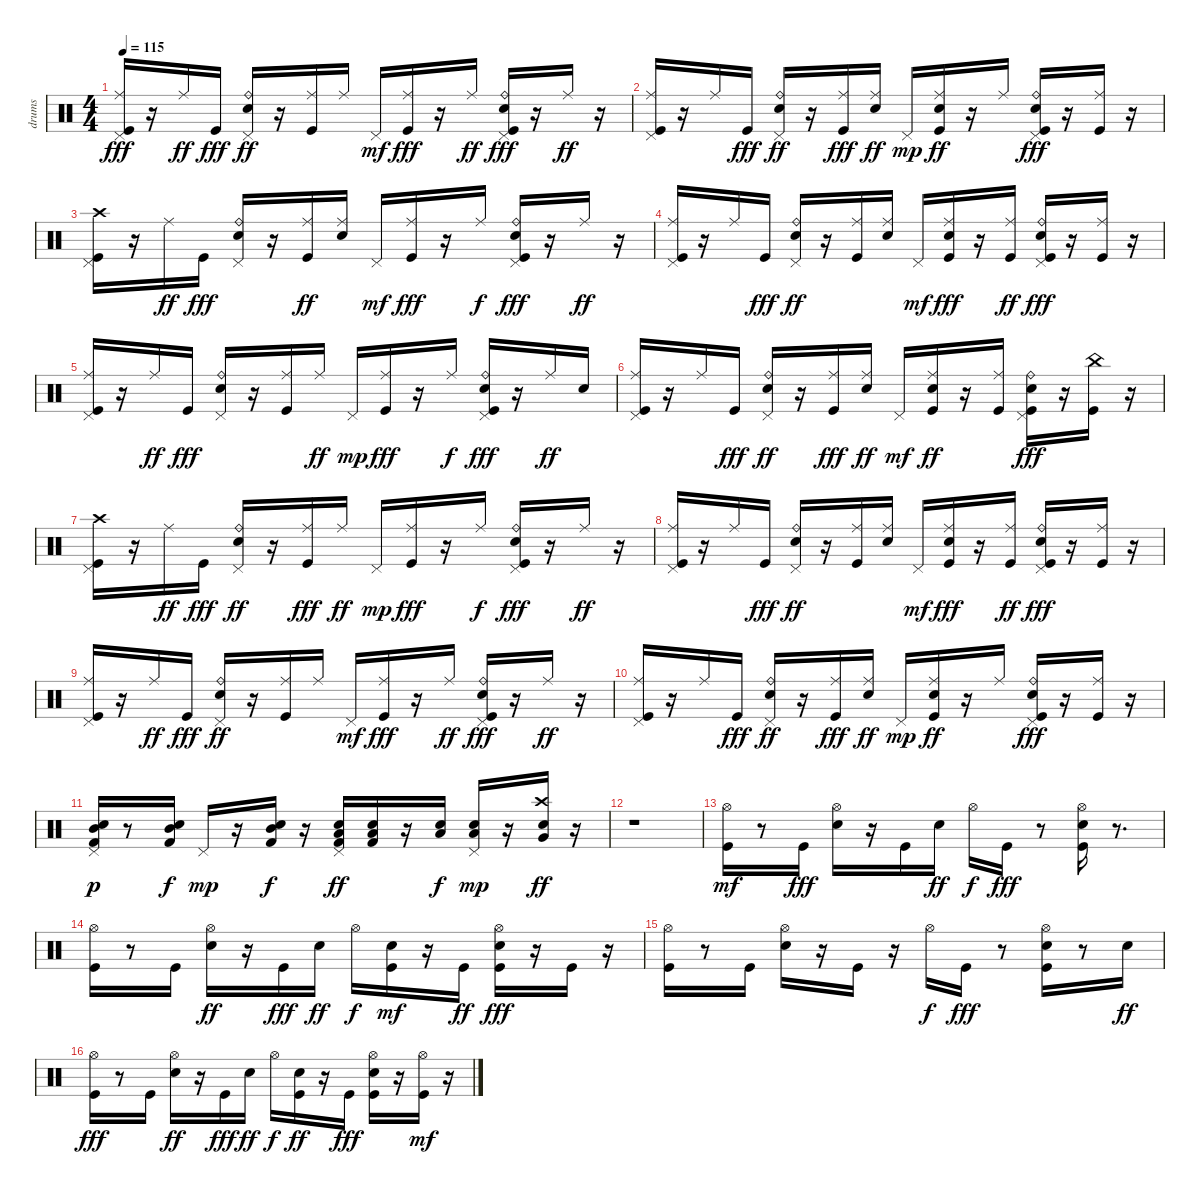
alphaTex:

\track ("drums" "drums") {instrument percussion}
\staff {score}
\articulation defaults
\ts (4 4)
\tempo 115
\clef neutral
\ks c
("Pedal Hi-Hat (hit)" "Ride (middle)" "Kick (hit)").16{dy fff} r.16 "Ride (middle)".16{dy ff} "Kick (hit)".16{dy fff} ("Pedal Hi-Hat (hit)" "Ride (bell)" "Snare (hit) 2").16{dy ff} r.16 ("Kick (hit)" "Ride (middle)").16 "Ride (middle)".16 "Pedal Hi-Hat (hit)".16{dy mf} ("Ride (middle)" "Kick (hit)").16{dy fff} r.16 "Ride (middle)".16{dy ff} ("Pedal Hi-Hat (hit)" "Kick (hit)" "Ride (bell)" "Snare (hit) 2").16{dy fff} r.16 "Ride (middle)".16{dy ff} r.16 |
("Pedal Hi-Hat (hit)" "Kick (hit)" "Ride (middle)").16 r.16 "Ride (middle)".16 "Kick (hit)".16{dy fff} ("Pedal Hi-Hat (hit)" "Snare (hit) 2" "Ride (bell)").16{dy ff} r.16 ("Kick (hit)" "Ride (middle)").16{dy fff} ("Ride (middle)" "Snare (hit) 2").16{dy ff} "Pedal Hi-Hat (hit)".16{dy mp} ("Kick (hit)" "Ride (middle)" "Snare (hit) 2").16{dy ff} r.16 "Ride (middle)".16 ("Pedal Hi-Hat (hit)" "Kick (hit)" "Snare (hit) 2" "Ride (bell)").16{dy fff} r.16 ("Ride (middle)" "Kick (hit)").16 r.16 |
("Crash high (hit)" "Pedal Hi-Hat (hit)" "Kick (hit)").16 r.16 "Ride (middle)".16{dy ff} "Kick (hit)".16{dy fff} ("Pedal Hi-Hat (hit)" "Snare (hit) 2" "Ride (bell)").16 r.16 ("Kick (hit)" "Ride (middle)").16{dy ff} ("Snare (hit) 2" "Ride (middle)").16 "Pedal Hi-Hat (hit)".16{dy mf} ("Ride (middle)" "Kick (hit)").16{dy fff} r.16 "Ride (middle)".16{dy f} ("Pedal Hi-Hat (hit)" "Snare (hit) 2" "Ride (bell)" "Kick (hit)").16{dy fff} r.16 "Ride (middle)".16{dy ff} r.16 |
("Pedal Hi-Hat (hit)" "Kick (hit)" "Ride (middle)").16 r.16 "Ride (middle)".16 "Kick (hit)".16{dy fff} ("Pedal Hi-Hat (hit)" "Snare (hit) 2" "Ride (bell)").16{dy ff} r.16 ("Kick (hit)" "Ride (middle)").16 ("Ride (middle)" "Snare (hit) 2").16 "Pedal Hi-Hat (hit)".16{dy mf} ("Ride (middle)" "Snare (hit) 2" "Kick (hit)").16{dy fff} r.16 ("Ride (middle)" "Kick (hit)").16{dy ff} ("Pedal Hi-Hat (hit)" "Ride (bell)" "Snare (hit) 2" "Kick (hit)").16{dy fff} r.16 ("Ride (middle)" "Kick (hit)").16 r.16 |
("Pedal Hi-Hat (hit)" "Ride (middle)" "Kick (hit)").16 r.16 "Ride (middle)".16{dy ff} "Kick (hit)".16{dy fff} ("Pedal Hi-Hat (hit)" "Snare (hit) 2" "Ride (bell)").16 r.16 ("Ride (middle)" "Kick (hit)").16 "Ride (middle)".16{dy ff} "Pedal Hi-Hat (hit)".16{dy mp} ("Ride (middle)" "Kick (hit)").16{dy fff} r.16 "Ride (middle)".16{dy f} ("Pedal Hi-Hat (hit)" "Ride (bell)" "Snare (hit) 2" "Kick (hit)").16{dy fff} r.16 "Ride (middle)".16{dy ff} "Snare (hit) 2".16 |
("Pedal Hi-Hat (hit)" "Kick (hit)" "Ride (middle)").16 r.16 "Ride (middle)".16 "Kick (hit)".16{dy fff} ("Pedal Hi-Hat (hit)" "Ride (bell)" "Snare (hit) 2").16{dy ff} r.16 ("Kick (hit)" "Ride (middle)").16{dy fff} ("Ride (middle)" "Snare (hit) 2").16{dy ff} "Pedal Hi-Hat (hit)".16{dy mf} ("Ride (middle)" "Kick (hit)" "Snare (hit) 2").16{dy ff} r.16 ("Kick (hit)" "Ride (middle)").16 ("Pedal Hi-Hat (hit)" "Ride (bell)" "Snare (hit) 2" "Kick (hit)").16{dy fff} r.16 ("China (hit)" "Kick (hit)").16 r.16 |
("Crash high (hit)" "Pedal Hi-Hat (hit)" "Kick (hit)").16 r.16 "Ride (middle)".16{dy ff} "Kick (hit)".16{dy fff} ("Pedal Hi-Hat (hit)" "Snare (hit) 2" "Ride (bell)").16{dy ff} r.16 ("Ride (middle)" "Kick (hit)").16{dy fff} "Ride (middle)".16{dy ff} "Pedal Hi-Hat (hit)".16{dy mp} ("Ride (middle)" "Kick (hit)").16{dy fff} r.16 "Ride (middle)".16{dy f} ("Pedal Hi-Hat (hit)" "Ride (bell)" "Snare (hit) 2" "Kick (hit)").16{dy fff} r.16 "Ride (middle)".16{dy ff} r.16 |
("Pedal Hi-Hat (hit)" "Kick (hit)" "Ride (middle)").16 r.16 "Ride (middle)".16 "Kick (hit)".16{dy fff} ("Pedal Hi-Hat (hit)" "Snare (hit) 2" "Ride (bell)").16{dy ff} r.16 ("Kick (hit)" "Ride (middle)").16 ("Ride (middle)" "Snare (hit) 2").16 "Pedal Hi-Hat (hit)".16{dy mf} ("Ride (middle)" "Snare (hit) 2" "Kick (hit)").16{dy fff} r.16 ("Kick (hit)" "Ride (middle)").16{dy ff} ("Pedal Hi-Hat (hit)" "Snare (hit) 2" "Ride (bell)" "Kick (hit)").16{dy fff} r.16 ("Ride (middle)" "Kick (hit)").16 r.16 |
("Pedal Hi-Hat (hit)" "Ride (middle)" "Kick (hit)").16 r.16 "Ride (middle)".16{dy ff} "Kick (hit)".16{dy fff} ("Pedal Hi-Hat (hit)" "Ride (bell)" "Snare (hit) 2").16{dy ff} r.16 ("Kick (hit)" "Ride (middle)").16 "Ride (middle)".16 "Pedal Hi-Hat (hit)".16{dy mf} ("Ride (middle)" "Kick (hit)").16{dy fff} r.16 "Ride (middle)".16{dy ff} ("Pedal Hi-Hat (hit)" "Kick (hit)" "Ride (bell)" "Snare (hit) 2").16{dy fff} r.16 "Ride (middle)".16{dy ff} r.16 |
("Pedal Hi-Hat (hit)" "Kick (hit)" "Ride (middle)").16 r.16 "Ride (middle)".16 "Kick (hit)".16{dy fff} ("Pedal Hi-Hat (hit)" "Snare (hit) 2" "Ride (bell)").16{dy ff} r.16 ("Kick (hit)" "Ride (middle)").16{dy fff} ("Ride (middle)" "Snare (hit) 2").16{dy ff} "Pedal Hi-Hat (hit)".16{dy mp} ("Kick (hit)" "Ride (middle)" "Snare (hit) 2").16{dy ff} r.16 "Ride (middle)".16 ("Pedal Hi-Hat (hit)" "Kick (hit)" "Snare (hit) 2" "Ride (bell)").16{dy fff} r.16 ("Ride (middle)" "Kick (hit)").16 r.16 |
("Kick (hit) 2" "Mid Tom (hit)" "Snare (hit) 2" "Pedal Hi-Hat (hit)").16{dy p} r.8 ("Kick (hit) 2" "Mid Tom (hit)" "Snare (hit) 2").16{dy f} "Pedal Hi-Hat (hit)".16{dy mp} r.16 ("Kick (hit) 2" "Snare (hit) 2" "Mid Tom (hit)").16{dy f} r.16 ("Kick (hit) 2" "Pedal Hi-Hat (hit)" "Snare (hit) 2" "Low Tom (hit)").16{dy ff} ("Kick (hit) 2" "Low Tom (hit)" "Snare (hit) 2").16 r.16 ("Snare (hit) 2" "Low Tom (hit)").16{dy f} ("Pedal Hi-Hat (hit)" "Snare (hit) 2" "Low Tom (hit)").16{dy mp} r.16 ("Crash high (hit)" "Very Low Tom (hit)" "Snare (hit) 2").16{dy ff} r.16 |
r.1 |
("Kick (hit)" "Hi-Hat (open)").16{dy mf} r.8 "Kick (hit)".16{dy fff} ("Snare (hit) 2" "Hi-Hat (open)").16 r.16 "Kick (hit)".16 "Snare (hit) 2".16{dy ff} "Hi-Hat (open)".16{dy f} "Kick (hit)".16{dy fff} r.8 ("Kick (hit)" "Snare (hit) 2" "Hi-Hat (open)").16 r.8{d} |
("Kick (hit)" "Hi-Hat (open)").16 r.8 "Kick (hit)".16 ("Snare (hit) 2" "Hi-Hat (open)").16{dy ff} r.16 "Kick (hit)".16{dy fff} "Snare (hit) 2".16{dy ff} "Hi-Hat (open)".16{dy f} ("Kick (hit)" "Snare (hit) 2").16{dy mf} r.16 "Kick (hit)".16{dy ff} ("Kick (hit)" "Snare (hit) 2" "Hi-Hat (open)").16{dy fff} r.16 "Kick (hit)".16 r.16 |
("Kick (hit)" "Hi-Hat (open)").16 r.8 "Kick (hit)".16 ("Snare (hit) 2" "Hi-Hat (open)").16 r.16 "Kick (hit)".16 r.16 "Hi-Hat (open)".16{dy f} "Kick (hit)".16{dy fff} r.8 ("Kick (hit)" "Snare (hit) 2" "Hi-Hat (open)").16 r.8 "Snare (hit) 2".16{dy ff} |
("Kick (hit)" "Hi-Hat (open)").16{dy fff} r.8 "Kick (hit)".16 ("Snare (hit) 2" "Hi-Hat (open)").16{dy ff} r.16 "Kick (hit)".16{dy fff} "Snare (hit) 2".16{dy ff} "Hi-Hat (open)".16{dy f} ("Kick (hit)" "Snare (hit) 2").16{dy ff} r.16 "Kick (hit)".16{dy fff} ("Kick (hit)" "Snare (hit) 2" "Hi-Hat (open)").16 r.16 ("Kick (hit)" "Hi-Hat (open)").16{dy mf} r.16
